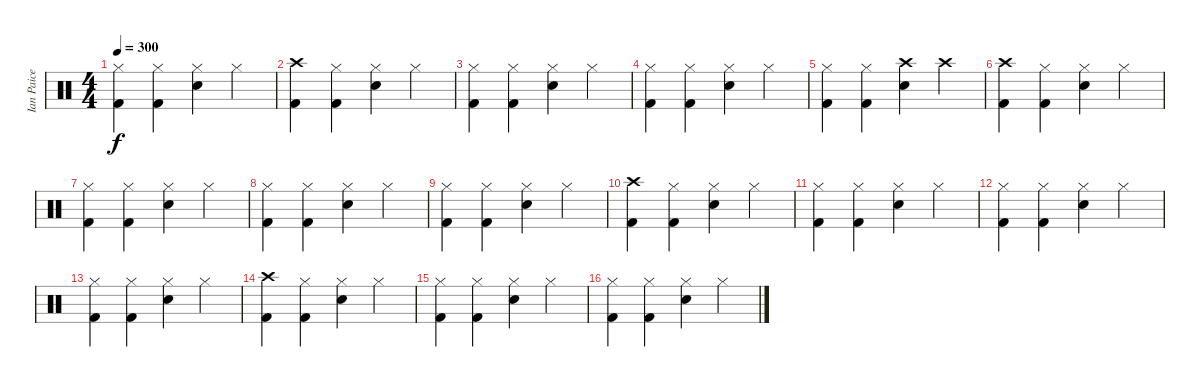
\track ("Ian Paice" "Ian Paice") {instrument percussion}
\staff {score}
\articulation defaults
\ts (4 4)
\tempo 300
\clef neutral
\ks c
("Hi-Hat (closed)" "Kick (hit) 2").4{dy f} ("Hi-Hat (closed)" "Kick (hit) 2").4 ("Hi-Hat (closed)" "Electric Snare (hit)").4 "Hi-Hat (closed)".4 |
("Crash high (hit)" "Kick (hit) 2").4 ("Hi-Hat (closed)" "Kick (hit) 2").4 ("Hi-Hat (closed)" "Electric Snare (hit)").4 "Hi-Hat (closed)".4 |
("Hi-Hat (closed)" "Kick (hit) 2").4 ("Hi-Hat (closed)" "Kick (hit) 2").4 ("Hi-Hat (closed)" "Electric Snare (hit)").4 "Hi-Hat (closed)".4 |
("Hi-Hat (closed)" "Kick (hit) 2").4 ("Hi-Hat (closed)" "Kick (hit) 2").4 ("Hi-Hat (closed)" "Electric Snare (hit)").4 "Hi-Hat (closed)".4 |
("Hi-Hat (closed)" "Kick (hit) 2").4 ("Hi-Hat (closed)" "Kick (hit) 2").4 ("Crash high (hit)" "Electric Snare (hit)").4 "Crash high (hit)".4 |
("Crash high (hit)" "Kick (hit) 2").4 ("Hi-Hat (closed)" "Kick (hit) 2").4 ("Hi-Hat (closed)" "Electric Snare (hit)").4 "Hi-Hat (closed)".4 |
("Hi-Hat (closed)" "Kick (hit) 2").4 ("Hi-Hat (closed)" "Kick (hit) 2").4 ("Hi-Hat (closed)" "Electric Snare (hit)").4 "Hi-Hat (closed)".4 |
("Hi-Hat (closed)" "Kick (hit) 2").4 ("Hi-Hat (closed)" "Kick (hit) 2").4 ("Hi-Hat (closed)" "Electric Snare (hit)").4 "Hi-Hat (closed)".4 |
("Hi-Hat (closed)" "Kick (hit) 2").4 ("Hi-Hat (closed)" "Kick (hit) 2").4 ("Hi-Hat (closed)" "Electric Snare (hit)").4 "Hi-Hat (closed)".4 |
("Crash high (hit)" "Kick (hit) 2").4 ("Hi-Hat (closed)" "Kick (hit) 2").4 ("Hi-Hat (closed)" "Electric Snare (hit)").4 "Hi-Hat (closed)".4 |
("Hi-Hat (closed)" "Kick (hit) 2").4 ("Hi-Hat (closed)" "Kick (hit) 2").4 ("Hi-Hat (closed)" "Electric Snare (hit)").4 "Hi-Hat (closed)".4 |
("Hi-Hat (closed)" "Kick (hit) 2").4 ("Hi-Hat (closed)" "Kick (hit) 2").4 ("Hi-Hat (closed)" "Electric Snare (hit)").4 "Hi-Hat (closed)".4 |
("Hi-Hat (closed)" "Kick (hit) 2").4 ("Hi-Hat (closed)" "Kick (hit) 2").4 ("Hi-Hat (closed)" "Electric Snare (hit)").4 "Hi-Hat (closed)".4 |
("Crash high (hit)" "Kick (hit) 2").4 ("Hi-Hat (closed)" "Kick (hit) 2").4 ("Hi-Hat (closed)" "Electric Snare (hit)").4 "Hi-Hat (closed)".4 |
("Hi-Hat (closed)" "Kick (hit) 2").4 ("Hi-Hat (closed)" "Kick (hit) 2").4 ("Hi-Hat (closed)" "Electric Snare (hit)").4 "Hi-Hat (closed)".4 |
("Hi-Hat (closed)" "Kick (hit) 2").4 ("Hi-Hat (closed)" "Kick (hit) 2").4 ("Hi-Hat (closed)" "Electric Snare (hit)").4 "Hi-Hat (closed)".4
